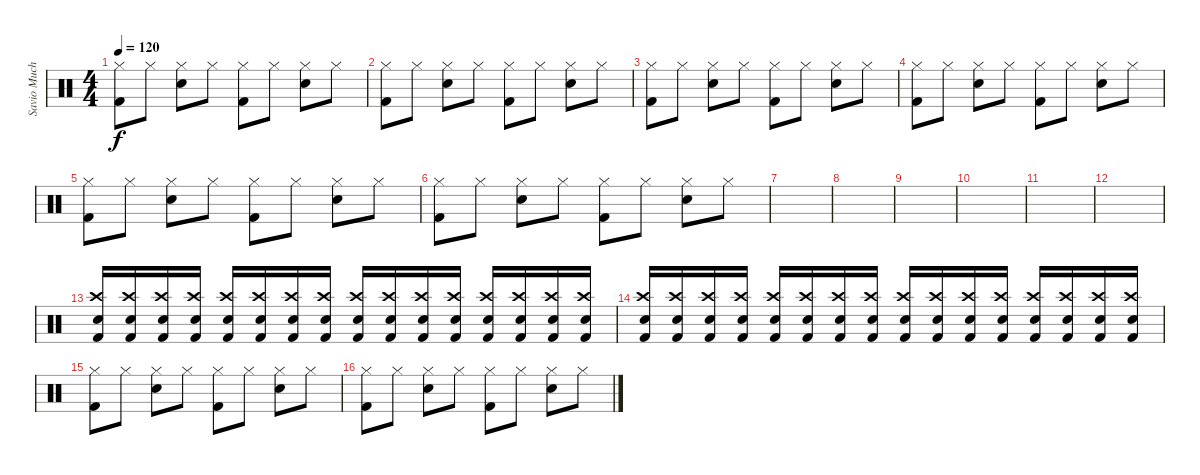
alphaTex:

\track ("Savio Muchacho (Drums)" "Savio Much") {instrument percussion}
\staff {score}
\articulation defaults
\ts (4 4)
\tempo 120
\clef neutral
\ks c
("Hi-Hat (closed)" "Kick (hit) 2").8{dy f} "Hi-Hat (closed)".8 ("Hi-Hat (closed)" "Electric Snare (hit)").8 "Hi-Hat (closed)".8 ("Hi-Hat (closed)" "Kick (hit) 2").8 "Hi-Hat (closed)".8 ("Hi-Hat (closed)" "Electric Snare (hit)").8 "Hi-Hat (closed)".8 |
("Hi-Hat (closed)" "Kick (hit) 2").8 "Hi-Hat (closed)".8 ("Hi-Hat (closed)" "Electric Snare (hit)").8 "Hi-Hat (closed)".8 ("Hi-Hat (closed)" "Kick (hit) 2").8 "Hi-Hat (closed)".8 ("Hi-Hat (closed)" "Electric Snare (hit)").8 "Hi-Hat (closed)".8 |
("Hi-Hat (closed)" "Kick (hit) 2").8 "Hi-Hat (closed)".8 ("Hi-Hat (closed)" "Electric Snare (hit)").8 "Hi-Hat (closed)".8 ("Hi-Hat (closed)" "Kick (hit) 2").8 "Hi-Hat (closed)".8 ("Hi-Hat (closed)" "Electric Snare (hit)").8 "Hi-Hat (closed)".8 |
("Hi-Hat (closed)" "Kick (hit) 2").8 "Hi-Hat (closed)".8 ("Hi-Hat (closed)" "Electric Snare (hit)").8 "Hi-Hat (closed)".8 ("Hi-Hat (closed)" "Kick (hit) 2").8 "Hi-Hat (closed)".8 ("Hi-Hat (closed)" "Electric Snare (hit)").8 "Hi-Hat (closed)".8 |
("Hi-Hat (closed)" "Kick (hit) 2").8 "Hi-Hat (closed)".8 ("Hi-Hat (closed)" "Electric Snare (hit)").8 "Hi-Hat (closed)".8 ("Hi-Hat (closed)" "Kick (hit) 2").8 "Hi-Hat (closed)".8 ("Hi-Hat (closed)" "Electric Snare (hit)").8 "Hi-Hat (closed)".8 |
("Hi-Hat (closed)" "Kick (hit) 2").8 "Hi-Hat (closed)".8 ("Hi-Hat (closed)" "Electric Snare (hit)").8 "Hi-Hat (closed)".8 ("Hi-Hat (closed)" "Kick (hit) 2").8 "Hi-Hat (closed)".8 ("Hi-Hat (closed)" "Electric Snare (hit)").8 "Hi-Hat (closed)".8 |
|
|
|
|
|
|
("Crash high (hit)" "Snare (hit) 2" "Kick (hit) 2").16 ("Crash high (hit)" "Snare (hit) 2" "Kick (hit) 2").16 ("Crash high (hit)" "Snare (hit) 2" "Kick (hit) 2").16 ("Crash high (hit)" "Snare (hit) 2" "Kick (hit) 2").16 ("Crash high (hit)" "Snare (hit) 2" "Kick (hit) 2").16 ("Crash high (hit)" "Snare (hit) 2" "Kick (hit) 2").16 ("Crash high (hit)" "Snare (hit) 2" "Kick (hit) 2").16 ("Crash high (hit)" "Snare (hit) 2" "Kick (hit) 2").16 ("Crash high (hit)" "Snare (hit) 2" "Kick (hit) 2").16 ("Crash high (hit)" "Snare (hit) 2" "Kick (hit) 2").16 ("Crash high (hit)" "Snare (hit) 2" "Kick (hit) 2").16 ("Crash high (hit)" "Snare (hit) 2" "Kick (hit) 2").16 ("Crash high (hit)" "Snare (hit) 2" "Kick (hit) 2").16 ("Crash high (hit)" "Snare (hit) 2" "Kick (hit) 2").16 ("Crash high (hit)" "Snare (hit) 2" "Kick (hit) 2").16 ("Crash high (hit)" "Snare (hit) 2" "Kick (hit) 2").16 |
("Crash high (hit)" "Snare (hit) 2" "Kick (hit) 2").16 ("Crash high (hit)" "Snare (hit) 2" "Kick (hit) 2").16 ("Crash high (hit)" "Snare (hit) 2" "Kick (hit) 2").16 ("Crash high (hit)" "Snare (hit) 2" "Kick (hit) 2").16 ("Crash high (hit)" "Snare (hit) 2" "Kick (hit) 2").16 ("Crash high (hit)" "Snare (hit) 2" "Kick (hit) 2").16 ("Crash high (hit)" "Snare (hit) 2" "Kick (hit) 2").16 ("Crash high (hit)" "Snare (hit) 2" "Kick (hit) 2").16 ("Crash high (hit)" "Snare (hit) 2" "Kick (hit) 2").16 ("Crash high (hit)" "Snare (hit) 2" "Kick (hit) 2").16 ("Crash high (hit)" "Snare (hit) 2" "Kick (hit) 2").16 ("Crash high (hit)" "Snare (hit) 2" "Kick (hit) 2").16 ("Crash high (hit)" "Snare (hit) 2" "Kick (hit) 2").16 ("Crash high (hit)" "Snare (hit) 2" "Kick (hit) 2").16 ("Crash high (hit)" "Snare (hit) 2" "Kick (hit) 2").16 ("Crash high (hit)" "Snare (hit) 2" "Kick (hit) 2").16 |
("Hi-Hat (closed)" "Kick (hit) 2").8 "Hi-Hat (closed)".8 ("Hi-Hat (closed)" "Electric Snare (hit)").8 "Hi-Hat (closed)".8 ("Hi-Hat (closed)" "Kick (hit) 2").8 "Hi-Hat (closed)".8 ("Hi-Hat (closed)" "Electric Snare (hit)").8 "Hi-Hat (closed)".8 |
("Hi-Hat (closed)" "Kick (hit) 2").8 "Hi-Hat (closed)".8 ("Hi-Hat (closed)" "Electric Snare (hit)").8 "Hi-Hat (closed)".8 ("Hi-Hat (closed)" "Kick (hit) 2").8 "Hi-Hat (closed)".8 ("Hi-Hat (closed)" "Electric Snare (hit)").8 "Hi-Hat (closed)".8
